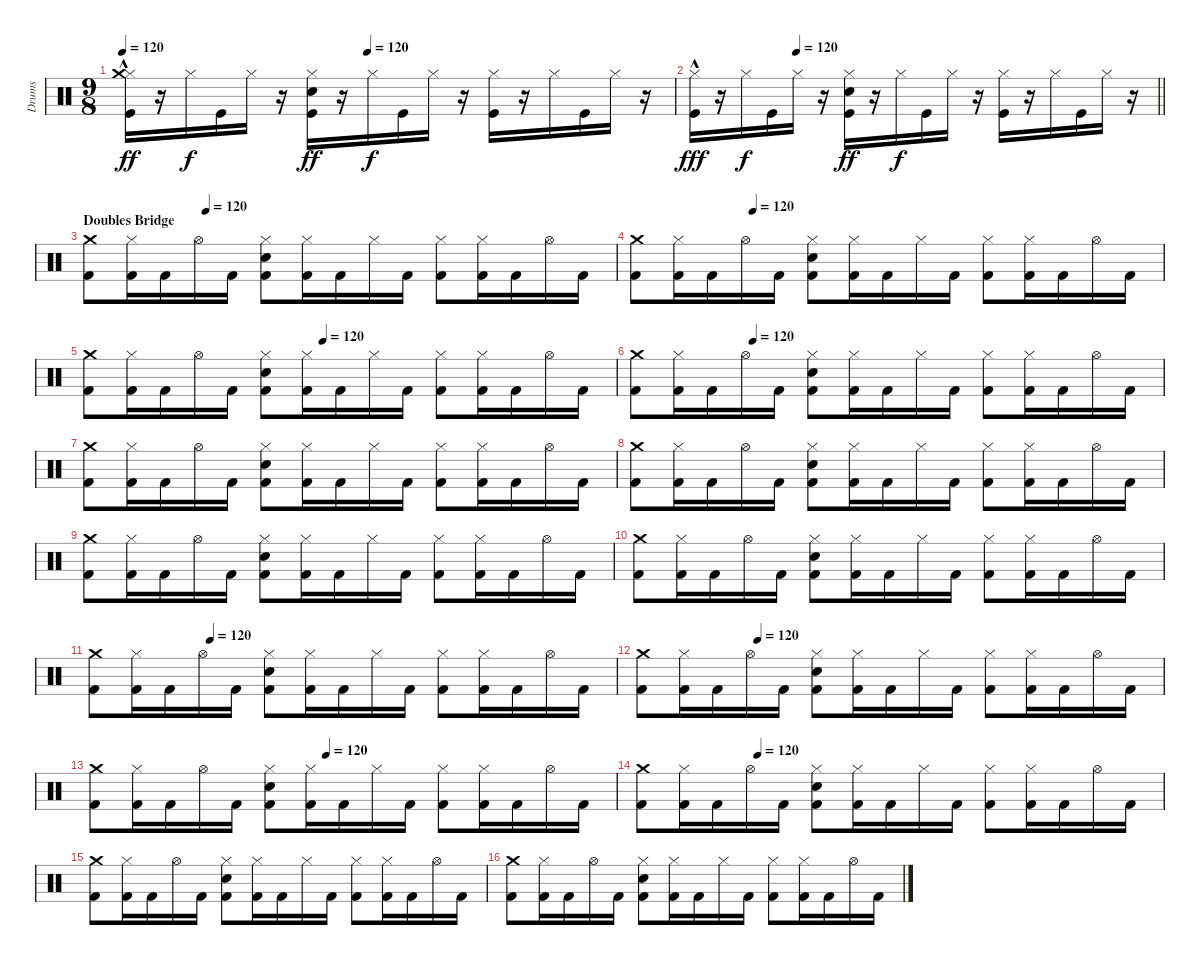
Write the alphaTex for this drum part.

\track ("Drums" "Drums") {instrument percussion}
\staff {score}
\articulation defaults
\ts (9 8)
\tempo 120
\tempo (120 0.4444444444444444)
\clef neutral
\ks c
("Hi-Hat (closed)"{hac} "Crash medium (hit)" "Kick (hit)").16{dy ff} r.16 "Hi-Hat (closed)".16{dy f} "Kick (hit)".16 "Hi-Hat (closed)".16 r.16 ("Hi-Hat (closed)" "Electric Snare (hit)" "Kick (hit)").16{dy ff} r.16 "Hi-Hat (closed)".16{dy f} "Kick (hit)".16 "Hi-Hat (closed)".16 r.16 ("Hi-Hat (closed)" "Kick (hit)").16 r.16 "Hi-Hat (closed)".16 "Kick (hit)".16 "Hi-Hat (closed)".16 r.16 |
\tempo (120 0.2222222222222222)
\barLineRight lightlight
("Hi-Hat (closed)"{hac} "Kick (hit)").16{dy fff} r.16 "Hi-Hat (closed)".16{dy f} "Kick (hit)".16 "Hi-Hat (closed)".16 r.16 ("Hi-Hat (closed)" "Electric Snare (hit)" "Kick (hit)").16{dy ff} r.16 "Hi-Hat (closed)".16{dy f} "Kick (hit)".16 "Hi-Hat (closed)".16 r.16 ("Hi-Hat (closed)" "Kick (hit)").16 r.16 "Hi-Hat (closed)".16 "Kick (hit)".16 "Hi-Hat (closed)".16 r.16 |
\section ("" "Doubles Bridge")
\tempo (120 0.2222222222222222)
("Kick (hit) 2" "Crash medium (hit)").8 ("Hi-Hat (closed)" "Kick (hit) 2").16 "Kick (hit) 2".16 "Hi-Hat (open)".16 "Kick (hit) 2".16 ("Hi-Hat (closed)" "Kick (hit) 2" "Electric Snare (hit)").8 ("Hi-Hat (closed)" "Kick (hit) 2").16 "Kick (hit) 2".16 "Hi-Hat (closed)".16 "Kick (hit) 2".16 ("Hi-Hat (closed)" "Kick (hit) 2").8 ("Hi-Hat (closed)" "Kick (hit) 2").16 "Kick (hit) 2".16 "Hi-Hat (open)".16 "Kick (hit) 2".16 |
\tempo (120 0.2222222222222222)
("Kick (hit) 2" "Crash medium (hit)").8 ("Hi-Hat (closed)" "Kick (hit) 2").16 "Kick (hit) 2".16 "Hi-Hat (open)".16 "Kick (hit) 2".16 ("Hi-Hat (closed)" "Kick (hit) 2" "Electric Snare (hit)").8 ("Hi-Hat (closed)" "Kick (hit) 2").16 "Kick (hit) 2".16 "Hi-Hat (closed)".16 "Kick (hit) 2".16 ("Hi-Hat (closed)" "Kick (hit) 2").8 ("Hi-Hat (closed)" "Kick (hit) 2").16 "Kick (hit) 2".16 "Hi-Hat (open)".16 "Kick (hit) 2".16 |
\tempo (120 0.4444444444444444)
("Kick (hit) 2" "Crash medium (hit)").8 ("Hi-Hat (closed)" "Kick (hit) 2").16 "Kick (hit) 2".16 "Hi-Hat (open)".16 "Kick (hit) 2".16 ("Hi-Hat (closed)" "Kick (hit) 2" "Electric Snare (hit)").8 ("Hi-Hat (closed)" "Kick (hit) 2").16 "Kick (hit) 2".16 "Hi-Hat (closed)".16 "Kick (hit) 2".16 ("Hi-Hat (closed)" "Kick (hit) 2").8 ("Hi-Hat (closed)" "Kick (hit) 2").16 "Kick (hit) 2".16 "Hi-Hat (open)".16 "Kick (hit) 2".16 |
\tempo (120 0.2222222222222222)
("Kick (hit) 2" "Crash medium (hit)").8 ("Hi-Hat (closed)" "Kick (hit) 2").16 "Kick (hit) 2".16 "Hi-Hat (open)".16 "Kick (hit) 2".16 ("Hi-Hat (closed)" "Kick (hit) 2" "Electric Snare (hit)").8 ("Hi-Hat (closed)" "Kick (hit) 2").16 "Kick (hit) 2".16 "Hi-Hat (closed)".16 "Kick (hit) 2".16 ("Hi-Hat (closed)" "Kick (hit) 2").8 ("Hi-Hat (closed)" "Kick (hit) 2").16 "Kick (hit) 2".16 "Hi-Hat (open)".16 "Kick (hit) 2".16 |
("Kick (hit) 2" "Crash medium (hit)").8 ("Hi-Hat (closed)" "Kick (hit) 2").16 "Kick (hit) 2".16 "Hi-Hat (open)".16 "Kick (hit) 2".16 ("Hi-Hat (closed)" "Kick (hit) 2" "Electric Snare (hit)").8 ("Hi-Hat (closed)" "Kick (hit) 2").16 "Kick (hit) 2".16 "Hi-Hat (closed)".16 "Kick (hit) 2".16 ("Hi-Hat (closed)" "Kick (hit) 2").8 ("Hi-Hat (closed)" "Kick (hit) 2").16 "Kick (hit) 2".16 "Hi-Hat (open)".16 "Kick (hit) 2".16 |
("Kick (hit) 2" "Crash medium (hit)").8 ("Hi-Hat (closed)" "Kick (hit) 2").16 "Kick (hit) 2".16 "Hi-Hat (open)".16 "Kick (hit) 2".16 ("Hi-Hat (closed)" "Kick (hit) 2" "Electric Snare (hit)").8 ("Hi-Hat (closed)" "Kick (hit) 2").16 "Kick (hit) 2".16 "Hi-Hat (closed)".16 "Kick (hit) 2".16 ("Hi-Hat (closed)" "Kick (hit) 2").8 ("Hi-Hat (closed)" "Kick (hit) 2").16 "Kick (hit) 2".16 "Hi-Hat (open)".16 "Kick (hit) 2".16 |
("Kick (hit) 2" "Crash medium (hit)").8 ("Hi-Hat (closed)" "Kick (hit) 2").16 "Kick (hit) 2".16 "Hi-Hat (open)".16 "Kick (hit) 2".16 ("Hi-Hat (closed)" "Kick (hit) 2" "Electric Snare (hit)").8 ("Hi-Hat (closed)" "Kick (hit) 2").16 "Kick (hit) 2".16 "Hi-Hat (closed)".16 "Kick (hit) 2".16 ("Hi-Hat (closed)" "Kick (hit) 2").8 ("Hi-Hat (closed)" "Kick (hit) 2").16 "Kick (hit) 2".16 "Hi-Hat (open)".16 "Kick (hit) 2".16 |
("Kick (hit) 2" "Crash medium (hit)").8 ("Hi-Hat (closed)" "Kick (hit) 2").16 "Kick (hit) 2".16 "Hi-Hat (open)".16 "Kick (hit) 2".16 ("Hi-Hat (closed)" "Kick (hit) 2" "Electric Snare (hit)").8 ("Hi-Hat (closed)" "Kick (hit) 2").16 "Kick (hit) 2".16 "Hi-Hat (closed)".16 "Kick (hit) 2".16 ("Hi-Hat (closed)" "Kick (hit) 2").8 ("Hi-Hat (closed)" "Kick (hit) 2").16 "Kick (hit) 2".16 "Hi-Hat (open)".16 "Kick (hit) 2".16 |
\tempo (120 0.2222222222222222)
("Kick (hit) 2" "Crash medium (hit)").8 ("Hi-Hat (closed)" "Kick (hit) 2").16 "Kick (hit) 2".16 "Hi-Hat (open)".16 "Kick (hit) 2".16 ("Hi-Hat (closed)" "Kick (hit) 2" "Electric Snare (hit)").8 ("Hi-Hat (closed)" "Kick (hit) 2").16 "Kick (hit) 2".16 "Hi-Hat (closed)".16 "Kick (hit) 2".16 ("Hi-Hat (closed)" "Kick (hit) 2").8 ("Hi-Hat (closed)" "Kick (hit) 2").16 "Kick (hit) 2".16 "Hi-Hat (open)".16 "Kick (hit) 2".16 |
\tempo (120 0.2222222222222222)
("Kick (hit) 2" "Crash medium (hit)").8 ("Hi-Hat (closed)" "Kick (hit) 2").16 "Kick (hit) 2".16 "Hi-Hat (open)".16 "Kick (hit) 2".16 ("Hi-Hat (closed)" "Kick (hit) 2" "Electric Snare (hit)").8 ("Hi-Hat (closed)" "Kick (hit) 2").16 "Kick (hit) 2".16 "Hi-Hat (closed)".16 "Kick (hit) 2".16 ("Hi-Hat (closed)" "Kick (hit) 2").8 ("Hi-Hat (closed)" "Kick (hit) 2").16 "Kick (hit) 2".16 "Hi-Hat (open)".16 "Kick (hit) 2".16 |
\tempo (120 0.4444444444444444)
("Kick (hit) 2" "Crash medium (hit)").8 ("Hi-Hat (closed)" "Kick (hit) 2").16 "Kick (hit) 2".16 "Hi-Hat (open)".16 "Kick (hit) 2".16 ("Hi-Hat (closed)" "Kick (hit) 2" "Electric Snare (hit)").8 ("Hi-Hat (closed)" "Kick (hit) 2").16 "Kick (hit) 2".16 "Hi-Hat (closed)".16 "Kick (hit) 2".16 ("Hi-Hat (closed)" "Kick (hit) 2").8 ("Hi-Hat (closed)" "Kick (hit) 2").16 "Kick (hit) 2".16 "Hi-Hat (open)".16 "Kick (hit) 2".16 |
\tempo (120 0.2222222222222222)
("Kick (hit) 2" "Crash medium (hit)").8 ("Hi-Hat (closed)" "Kick (hit) 2").16 "Kick (hit) 2".16 "Hi-Hat (open)".16 "Kick (hit) 2".16 ("Hi-Hat (closed)" "Kick (hit) 2" "Electric Snare (hit)").8 ("Hi-Hat (closed)" "Kick (hit) 2").16 "Kick (hit) 2".16 "Hi-Hat (closed)".16 "Kick (hit) 2".16 ("Hi-Hat (closed)" "Kick (hit) 2").8 ("Hi-Hat (closed)" "Kick (hit) 2").16 "Kick (hit) 2".16 "Hi-Hat (open)".16 "Kick (hit) 2".16 |
("Kick (hit) 2" "Crash medium (hit)").8 ("Hi-Hat (closed)" "Kick (hit) 2").16 "Kick (hit) 2".16 "Hi-Hat (open)".16 "Kick (hit) 2".16 ("Hi-Hat (closed)" "Kick (hit) 2" "Electric Snare (hit)").8 ("Hi-Hat (closed)" "Kick (hit) 2").16 "Kick (hit) 2".16 "Hi-Hat (closed)".16 "Kick (hit) 2".16 ("Hi-Hat (closed)" "Kick (hit) 2").8 ("Hi-Hat (closed)" "Kick (hit) 2").16 "Kick (hit) 2".16 "Hi-Hat (open)".16 "Kick (hit) 2".16 |
("Kick (hit) 2" "Crash medium (hit)").8 ("Hi-Hat (closed)" "Kick (hit) 2").16 "Kick (hit) 2".16 "Hi-Hat (open)".16 "Kick (hit) 2".16 ("Hi-Hat (closed)" "Kick (hit) 2" "Electric Snare (hit)").8 ("Hi-Hat (closed)" "Kick (hit) 2").16 "Kick (hit) 2".16 "Hi-Hat (closed)".16 "Kick (hit) 2".16 ("Hi-Hat (closed)" "Kick (hit) 2").8 ("Hi-Hat (closed)" "Kick (hit) 2").16 "Kick (hit) 2".16 "Hi-Hat (open)".16 "Kick (hit) 2".16
